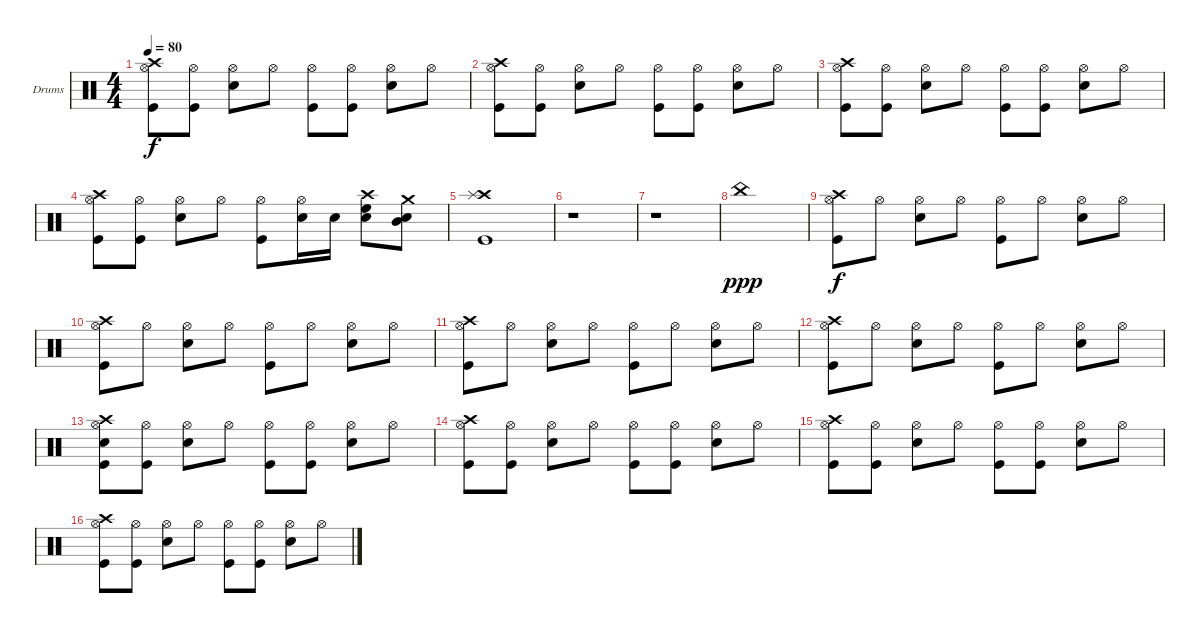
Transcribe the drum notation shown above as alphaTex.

\bracketExtendMode groupsimilarinstruments
\firstSystemTrackNameOrientation horizontal
\otherSystemsTrackNameOrientation horizontal
\track ("Drumkit" "Drums") {instrument percussion}
\staff {score}
\articulation defaults
\ts (4 4)
\tempo 80
\clef neutral
\ks c
("Hi-Hat (open)" "Crash high (hit)" "Kick (hit)").8{dy f} ("Hi-Hat (open)" "Kick (hit)").8 ("Hi-Hat (open)" "Snare (hit) 2").8 "Hi-Hat (open)".8 ("Hi-Hat (open)" "Kick (hit)").8 ("Hi-Hat (open)" "Kick (hit)").8 ("Hi-Hat (open)" "Snare (hit) 2").8 "Hi-Hat (open)".8 |
("Hi-Hat (open)" "Crash high (hit)" "Kick (hit)").8 ("Hi-Hat (open)" "Kick (hit)").8 ("Hi-Hat (open)" "Snare (hit) 2").8 "Hi-Hat (open)".8 ("Hi-Hat (open)" "Kick (hit)").8 ("Hi-Hat (open)" "Kick (hit)").8 ("Hi-Hat (open)" "Snare (hit) 2").8 "Hi-Hat (open)".8 |
("Hi-Hat (open)" "Crash high (hit)" "Kick (hit)").8 ("Hi-Hat (open)" "Kick (hit)").8 ("Hi-Hat (open)" "Snare (hit) 2").8 "Hi-Hat (open)".8 ("Hi-Hat (open)" "Kick (hit)").8 ("Hi-Hat (open)" "Kick (hit)").8 ("Hi-Hat (open)" "Snare (hit) 2").8 "Hi-Hat (open)".8 |
("Hi-Hat (open)" "Crash high (hit)" "Kick (hit)").8 ("Hi-Hat (open)" "Kick (hit)").8 ("Hi-Hat (open)" "Snare (hit) 2").8 "Hi-Hat (open)".8 ("Hi-Hat (open)" "Kick (hit)").8 ("Hi-Hat (open)" "Snare (hit) 2").16 "Snare (hit) 2".16 ("Crash high (hit)" "High Floor Tom (hit)" "Snare (hit) 2").8 ("Crash medium (hit)" "Mid Tom (hit)" "Snare (hit) 2").8 |
("Crash high (hit)" "Splash (hit)" "Kick (hit)").1 |
r.1 |
r.1 |
"China (hit)".1{dy ppp} |
("Hi-Hat (open)" "Crash high (hit)" "Kick (hit)").8{dy f} "Hi-Hat (open)".8 ("Hi-Hat (open)" "Snare (hit) 2").8 "Hi-Hat (open)".8 ("Hi-Hat (open)" "Kick (hit)").8 "Hi-Hat (open)".8 ("Hi-Hat (open)" "Snare (hit) 2").8 "Hi-Hat (open)".8 |
("Hi-Hat (open)" "Crash high (hit)" "Kick (hit)").8 "Hi-Hat (open)".8 ("Hi-Hat (open)" "Snare (hit) 2").8 "Hi-Hat (open)".8 ("Hi-Hat (open)" "Kick (hit)").8 "Hi-Hat (open)".8 ("Hi-Hat (open)" "Snare (hit) 2").8 "Hi-Hat (open)".8 |
("Hi-Hat (open)" "Crash high (hit)" "Kick (hit)").8 "Hi-Hat (open)".8 ("Hi-Hat (open)" "Snare (hit) 2").8 "Hi-Hat (open)".8 ("Hi-Hat (open)" "Kick (hit)").8 "Hi-Hat (open)".8 ("Hi-Hat (open)" "Snare (hit) 2").8 "Hi-Hat (open)".8 |
("Hi-Hat (open)" "Crash high (hit)" "Kick (hit)").8 "Hi-Hat (open)".8 ("Hi-Hat (open)" "Snare (hit) 2").8 "Hi-Hat (open)".8 ("Hi-Hat (open)" "Kick (hit)").8 "Hi-Hat (open)".8 ("Hi-Hat (open)" "Snare (hit) 2").8 "Hi-Hat (open)".8 |
("Hi-Hat (open)" "Crash high (hit)" "Kick (hit)" "Snare (hit) 2").8 ("Hi-Hat (open)" "Kick (hit)").8 ("Hi-Hat (open)" "Snare (hit) 2").8 "Hi-Hat (open)".8 ("Hi-Hat (open)" "Kick (hit)").8 ("Hi-Hat (open)" "Kick (hit)").8 ("Hi-Hat (open)" "Snare (hit) 2").8 "Hi-Hat (open)".8 |
("Hi-Hat (open)" "Crash high (hit)" "Kick (hit)").8 ("Hi-Hat (open)" "Kick (hit)").8 ("Hi-Hat (open)" "Snare (hit) 2").8 "Hi-Hat (open)".8 ("Hi-Hat (open)" "Kick (hit)").8 ("Hi-Hat (open)" "Kick (hit)").8 ("Hi-Hat (open)" "Snare (hit) 2").8 "Hi-Hat (open)".8 |
("Hi-Hat (open)" "Crash high (hit)" "Kick (hit)").8 ("Hi-Hat (open)" "Kick (hit)").8 ("Hi-Hat (open)" "Snare (hit) 2").8 "Hi-Hat (open)".8 ("Hi-Hat (open)" "Kick (hit)").8 ("Hi-Hat (open)" "Kick (hit)").8 ("Hi-Hat (open)" "Snare (hit) 2").8 "Hi-Hat (open)".8 |
("Hi-Hat (open)" "Crash high (hit)" "Kick (hit)").8 ("Hi-Hat (open)" "Kick (hit)").8 ("Hi-Hat (open)" "Snare (hit) 2").8 "Hi-Hat (open)".8 ("Hi-Hat (open)" "Kick (hit)").8 ("Hi-Hat (open)" "Kick (hit)").8 ("Hi-Hat (open)" "Snare (hit) 2").8 "Hi-Hat (open)".8
